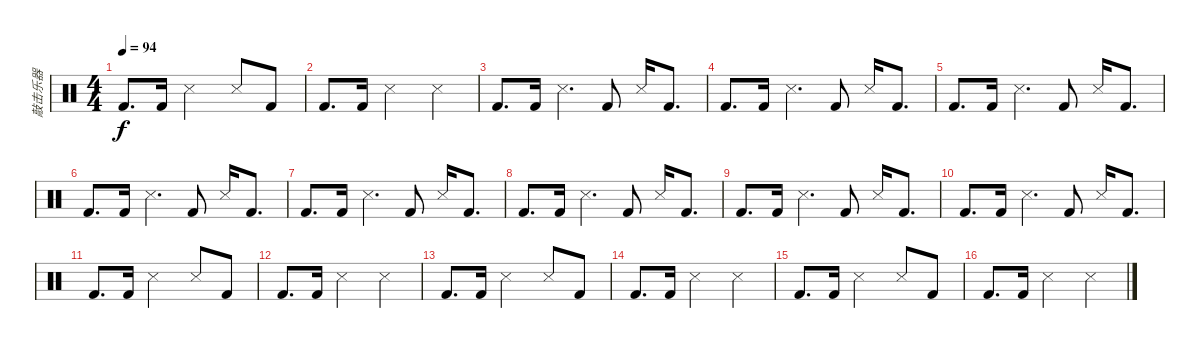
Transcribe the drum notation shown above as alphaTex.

\track ("敲击乐器" "敲击乐器") {instrument percussion}
\staff {score}
\articulation defaults
\ts (4 4)
\tempo 94
\clef neutral
\ks c "Kick (hit) 2".8{d dy f} "Kick (hit) 2".16 "Snare (side stick) 3".2 "Snare (side stick) 3".8 "Kick (hit) 2".8
|
"Kick (hit) 2".8{d} "Kick (hit) 2".16 "Snare (side stick) 3".2 "Snare (side stick) 3".4 |
"Kick (hit) 2".8{d} "Kick (hit) 2".16 "Snare (side stick) 3".4{d} "Kick (hit) 2".8 "Snare (side stick) 3".16 "Kick (hit) 2".8{d} |
"Kick (hit) 2".8{d} "Kick (hit) 2".16 "Snare (side stick) 3".4{d} "Kick (hit) 2".8 "Snare (side stick) 3".16 "Kick (hit) 2".8{d} |
"Kick (hit) 2".8{d} "Kick (hit) 2".16 "Snare (side stick) 3".4{d} "Kick (hit) 2".8 "Snare (side stick) 3".16 "Kick (hit) 2".8{d} |
"Kick (hit) 2".8{d} "Kick (hit) 2".16 "Snare (side stick) 3".4{d} "Kick (hit) 2".8 "Snare (side stick) 3".16 "Kick (hit) 2".8{d} |
"Kick (hit) 2".8{d} "Kick (hit) 2".16 "Snare (side stick) 3".4{d} "Kick (hit) 2".8 "Snare (side stick) 3".16 "Kick (hit) 2".8{d} |
"Kick (hit) 2".8{d} "Kick (hit) 2".16 "Snare (side stick) 3".4{d} "Kick (hit) 2".8 "Snare (side stick) 3".16 "Kick (hit) 2".8{d} |
"Kick (hit) 2".8{d} "Kick (hit) 2".16 "Snare (side stick) 3".4{d} "Kick (hit) 2".8 "Snare (side stick) 3".16 "Kick (hit) 2".8{d} |
"Kick (hit) 2".8{d} "Kick (hit) 2".16 "Snare (side stick) 3".4{d} "Kick (hit) 2".8 "Snare (side stick) 3".16 "Kick (hit) 2".8{d} |
"Kick (hit) 2".8{d} "Kick (hit) 2".16 "Snare (side stick) 3".2 "Snare (side stick) 3".8 "Kick (hit) 2".8 |
"Kick (hit) 2".8{d} "Kick (hit) 2".16 "Snare (side stick) 3".2 "Snare (side stick) 3".4 |
"Kick (hit) 2".8{d} "Kick (hit) 2".16 "Snare (side stick) 3".2 "Snare (side stick) 3".8 "Kick (hit) 2".8 |
"Kick (hit) 2".8{d} "Kick (hit) 2".16 "Snare (side stick) 3".2 "Snare (side stick) 3".4 |
"Kick (hit) 2".8{d} "Kick (hit) 2".16 "Snare (side stick) 3".2 "Snare (side stick) 3".8 "Kick (hit) 2".8 |
"Kick (hit) 2".8{d} "Kick (hit) 2".16 "Snare (side stick) 3".2 "Snare (side stick) 3".4
